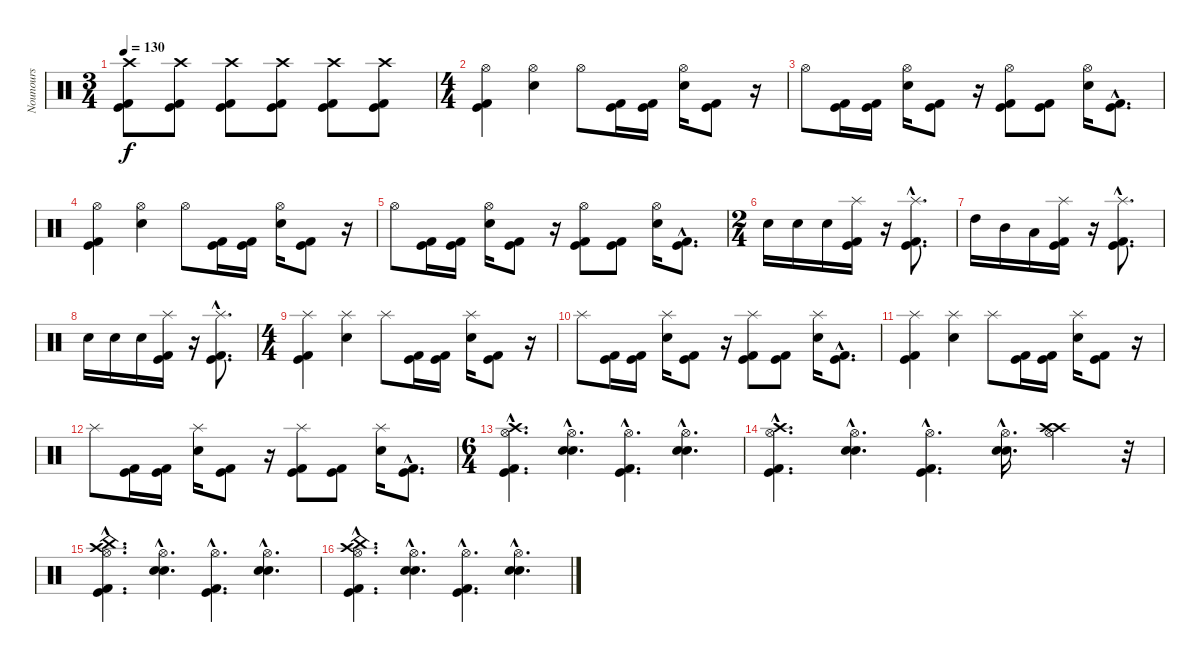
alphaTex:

\track ("Nounours" "Nounours") {instrument percussion}
\staff {score}
\articulation defaults
\ts (3 4)
\tempo 130
\clef neutral
\ks c
("Crash high (hit)" "Kick (hit) 2" "Kick (hit)").8{dy f} ("Crash high (hit)" "Kick (hit)" "Kick (hit) 2").8 ("Crash high (hit)" "Kick (hit)" "Kick (hit) 2").8 ("Crash high (hit)" "Kick (hit)" "Kick (hit) 2").8 ("Crash high (hit)" "Kick (hit) 2" "Kick (hit)").8 ("Crash high (hit)" "Kick (hit) 2" "Kick (hit)").8 |
\ts (4 4)
("Hi-Hat (open)" "Kick (hit) 2" "Kick (hit)").4 ("Hi-Hat (open)" "Snare (hit) 2").4 "Hi-Hat (open)".8 ("Kick (hit) 2" "Kick (hit)").16 ("Kick (hit)" "Kick (hit) 2").16 ("Hi-Hat (open)" "Snare (hit) 2").16 ("Kick (hit)" "Kick (hit) 2").8 r.16 |
"Hi-Hat (open)".8 ("Kick (hit)" "Kick (hit) 2").16 ("Kick (hit) 2" "Kick (hit)").16 ("Hi-Hat (open)" "Snare (hit) 2").16 ("Kick (hit) 2" "Kick (hit)").8 r.16 ("Hi-Hat (open)" "Kick (hit) 2" "Kick (hit)").8 ("Kick (hit) 2" "Kick (hit)").8 ("Hi-Hat (open)" "Snare (hit) 2").16 ("Kick (hit) 2"{hac} "Kick (hit)"{hac}).8{d} |
("Hi-Hat (open)" "Kick (hit) 2" "Kick (hit)").4 ("Hi-Hat (open)" "Snare (hit) 2").4 "Hi-Hat (open)".8 ("Kick (hit) 2" "Kick (hit)").16 ("Kick (hit)" "Kick (hit) 2").16 ("Hi-Hat (open)" "Snare (hit) 2").16 ("Kick (hit)" "Kick (hit) 2").8 r.16 |
"Hi-Hat (open)".8 ("Kick (hit)" "Kick (hit) 2").16 ("Kick (hit) 2" "Kick (hit)").16 ("Hi-Hat (open)" "Snare (hit) 2").16 ("Kick (hit) 2" "Kick (hit)").8 r.16 ("Hi-Hat (open)" "Kick (hit) 2" "Kick (hit)").8 ("Kick (hit) 2" "Kick (hit)").8 ("Hi-Hat (open)" "Snare (hit) 2").16 ("Kick (hit) 2"{hac} "Kick (hit)"{hac}).8{d} |
\ts (2 4)
"Snare (hit) 2".16 "Snare (hit) 2".16 "Snare (hit) 2".16 ("Splash (hit)" "Kick (hit)" "Kick (hit) 2").16 r.16 ("Splash (hit)"{hac} "Kick (hit)"{hac} "Kick (hit) 2"{hac}).8{d} |
"High Tom (hit)".16 "Mid Tom (hit)".16 "Low Tom (hit)".16 ("Splash (hit)" "Kick (hit)" "Kick (hit) 2").16 r.16 ("Splash (hit)"{hac} "Kick (hit)"{hac} "Kick (hit) 2"{hac}).8{d} |
"Snare (hit) 2".16 "Snare (hit) 2".16 "Snare (hit) 2".16 ("Splash (hit)" "Kick (hit)" "Kick (hit) 2").16 r.16 ("Splash (hit)"{hac} "Kick (hit)"{hac} "Kick (hit) 2"{hac}).8{d} |
\ts (4 4)
("Splash (hit)" "Kick (hit) 2" "Kick (hit)").4 ("Splash (hit)" "Snare (hit) 2").4 "Splash (hit)".8 ("Kick (hit) 2" "Kick (hit)").16 ("Kick (hit)" "Kick (hit) 2").16 ("Splash (hit)" "Snare (hit) 2").16 ("Kick (hit)" "Kick (hit) 2").8 r.16 |
"Splash (hit)".8 ("Kick (hit)" "Kick (hit) 2").16 ("Kick (hit) 2" "Kick (hit)").16 ("Splash (hit)" "Snare (hit) 2").16 ("Kick (hit) 2" "Kick (hit)").8 r.16 ("Splash (hit)" "Kick (hit) 2" "Kick (hit)").8 ("Kick (hit) 2" "Kick (hit)").8 ("Splash (hit)" "Snare (hit) 2").16 ("Kick (hit) 2"{hac} "Kick (hit)"{hac}).8{d} |
("Splash (hit)" "Kick (hit) 2" "Kick (hit)").4 ("Splash (hit)" "Snare (hit) 2").4 "Splash (hit)".8 ("Kick (hit) 2" "Kick (hit)").16 ("Kick (hit)" "Kick (hit) 2").16 ("Splash (hit)" "Snare (hit) 2").16 ("Kick (hit)" "Kick (hit) 2").8 r.16 |
"Splash (hit)".8 ("Kick (hit)" "Kick (hit) 2").16 ("Kick (hit) 2" "Kick (hit)").16 ("Splash (hit)" "Snare (hit) 2").16 ("Kick (hit) 2" "Kick (hit)").8 r.16 ("Splash (hit)" "Kick (hit) 2" "Kick (hit)").8 ("Kick (hit) 2" "Kick (hit)").8 ("Splash (hit)" "Snare (hit) 2").16 ("Kick (hit) 2"{hac} "Kick (hit)"{hac}).8{d} |
\ts (6 4)
("Hi-Hat (open)"{hac} "Crash high (hit)"{hac} "Kick (hit) 2"{hac} "Kick (hit)"{hac}).4{d} ("Hi-Hat (open)"{hac} "Snare (hit) 2"{hac} "Electric Snare (hit)"{hac}).4{d} ("Hi-Hat (open)"{hac} "Kick (hit)"{hac} "Kick (hit) 2"{hac}).4{d} ("Hi-Hat (open)"{hac} "Snare (hit) 2"{hac} "Electric Snare (hit)"{hac}).4{d} |
("Hi-Hat (open)"{hac} "Crash high (hit)"{hac} "Kick (hit) 2"{hac} "Kick (hit)"{hac}).4{d} ("Hi-Hat (open)"{hac} "Snare (hit) 2"{hac} "Electric Snare (hit)"{hac}).4{d} ("Hi-Hat (open)"{hac} "Kick (hit)"{hac} "Kick (hit) 2"{hac}).4{d} ("Hi-Hat (open)"{hac} "Snare (hit) 2"{hac} "Electric Snare (hit)"{hac}).16{d} ("Hi-Hat (open)" "Crash high (hit)" "Crash high (hit)").4 r.32 |
("China (hit)"{hac} "Hi-Hat (open)"{hac} "Crash high (hit)"{hac} "Kick (hit) 2"{hac} "Kick (hit)"{hac}).4{d} ("Hi-Hat (open)"{hac} "Snare (hit) 2"{hac} "Electric Snare (hit)"{hac}).4{d} ("Hi-Hat (open)"{hac} "Kick (hit)"{hac} "Kick (hit) 2"{hac}).4{d} ("Hi-Hat (open)"{hac} "Snare (hit) 2"{hac} "Electric Snare (hit)"{hac}).4{d} |
("China (hit)"{hac} "Hi-Hat (open)"{hac} "Crash high (hit)"{hac} "Kick (hit) 2"{hac} "Kick (hit)"{hac}).4{d} ("Hi-Hat (open)"{hac} "Snare (hit) 2"{hac} "Electric Snare (hit)"{hac}).4{d} ("Hi-Hat (open)"{hac} "Kick (hit)"{hac} "Kick (hit) 2"{hac}).4{d} ("Hi-Hat (open)"{hac} "Snare (hit) 2"{hac} "Electric Snare (hit)"{hac}).4{d}
